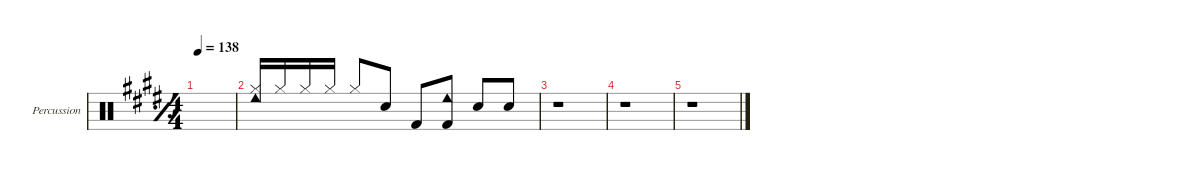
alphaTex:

\defaultSystemsLayout 4
\hideDynamics
\bracketExtendMode nobrackets
\firstSystemTrackNameOrientation horizontal
\track ("Percussion" "Percussion") {defaultSystemsLayout 4 mute instrument percussion}
\staff {score}
\articulation defaults
\ts (4 4)
\tempo 138
\clef neutral
\simile simple
\scale
0.244132
\ks c#minor
|
\simile none
\scale
0.265829 ("Hi-Hat (closed)"{acc forcenatural} "Cowbell low (hit)"{acc forcenatural}).16{beam Up} "Hi-Hat (closed)"{acc forcenatural}.16{beam Up} "Hi-Hat (closed)"{acc forcenatural}.16{beam Up} "Hi-Hat (closed)"{acc forcenatural}.16{beam Up beam split} "Hi-Hat (closed)"{acc forcenatural}.8{beam Up} "Snare (hit) 2"{acc forcenatural}.8{beam Up} "Kick (hit) 2"{acc forcenatural}.8{beam Up} ("Kick (hit) 2"{acc forcenatural} "Cowbell low (hit)"{acc forcenatural}).8{beam Up} "Snare (hit) 2"{acc forcenatural}.8{beam Up} "Snare (hit) 2"{acc forcenatural}.8{beam Up} |
\scale
0.242355 r.1{beam Down} |
\scale
0.242355 r.1{beam Down} |
\scale
0.249461 r.1{beam Down}
